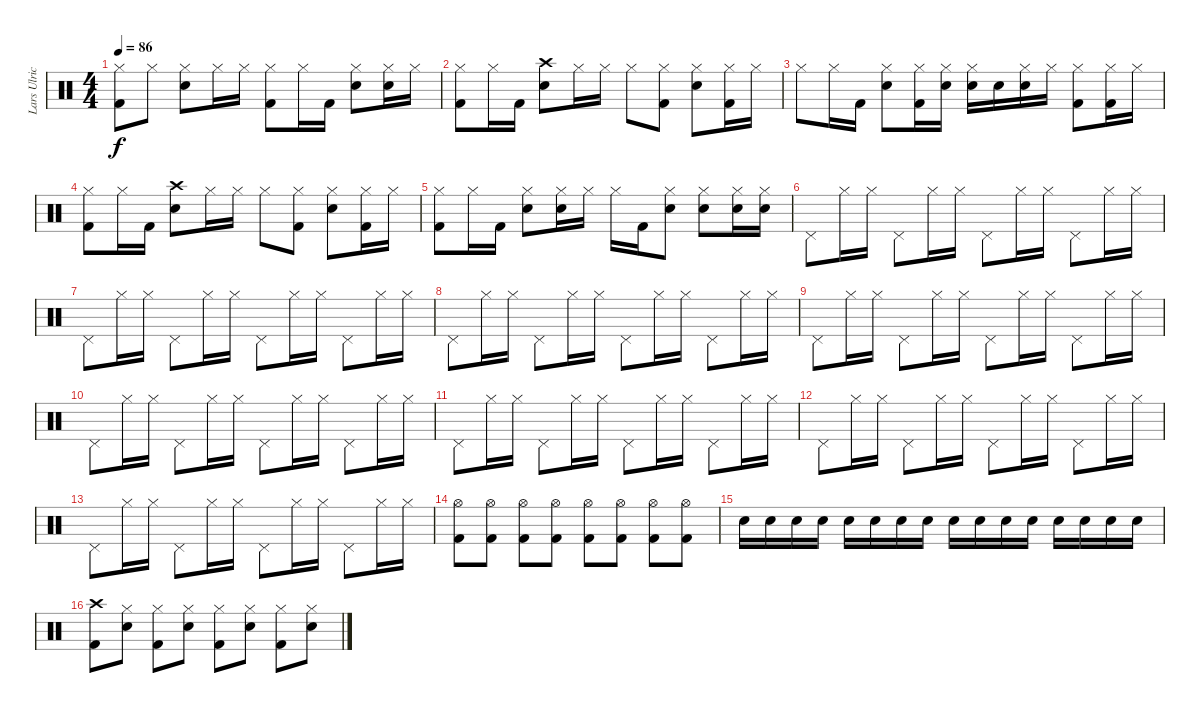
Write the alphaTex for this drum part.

\track ("Lars Ulrich" "Lars Ulric") {instrument percussion}
\staff {score}
\articulation defaults
\ts (4 4)
\tempo 86
\clef neutral
\ks c
("Hi-Hat (closed)" "Kick (hit) 2").8{dy f} "Hi-Hat (closed)".8 ("Hi-Hat (closed)" "Electric Snare (hit)").8 "Hi-Hat (closed)".16 "Hi-Hat (closed)".16 ("Hi-Hat (closed)" "Kick (hit) 2").8 "Hi-Hat (closed)".16 "Kick (hit) 2".16 ("Hi-Hat (closed)" "Electric Snare (hit)").8 ("Hi-Hat (closed)" "Electric Snare (hit)").16 "Hi-Hat (closed)".16 |
("Hi-Hat (closed)" "Kick (hit) 2").8 "Hi-Hat (closed)".16 "Kick (hit) 2".16 ("Crash high (hit)" "Electric Snare (hit)").8 "Hi-Hat (closed)".16 "Hi-Hat (closed)".16 "Hi-Hat (closed)".8 ("Hi-Hat (closed)" "Kick (hit) 2").8 ("Hi-Hat (closed)" "Electric Snare (hit)").8 ("Hi-Hat (closed)" "Kick (hit) 2").16 "Hi-Hat (closed)".16 |
"Hi-Hat (closed)".8 "Hi-Hat (closed)".16 "Kick (hit) 2".16 ("Hi-Hat (closed)" "Electric Snare (hit)").8 ("Hi-Hat (closed)" "Kick (hit) 2").16 ("Hi-Hat (closed)" "Electric Snare (hit)").16 ("Hi-Hat (closed)" "Electric Snare (hit)").16 "Electric Snare (hit)".16 ("Hi-Hat (closed)" "Electric Snare (hit)").16 "Hi-Hat (closed)".16 ("Hi-Hat (closed)" "Kick (hit) 2").8 ("Hi-Hat (closed)" "Kick (hit) 2").16 "Hi-Hat (closed)".16 |
("Hi-Hat (closed)" "Kick (hit) 2").8 "Hi-Hat (closed)".16 "Kick (hit) 2".16 ("Crash high (hit)" "Electric Snare (hit)").8 "Hi-Hat (closed)".16 "Hi-Hat (closed)".16 "Hi-Hat (closed)".8 ("Hi-Hat (closed)" "Kick (hit) 2").8 ("Hi-Hat (closed)" "Electric Snare (hit)").8 ("Hi-Hat (closed)" "Kick (hit) 2").16 "Hi-Hat (closed)".16 |
("Hi-Hat (closed)" "Kick (hit) 2").8 "Hi-Hat (closed)".16 "Kick (hit) 2".16 ("Hi-Hat (closed)" "Electric Snare (hit)").8 ("Hi-Hat (closed)" "Electric Snare (hit)").16 "Hi-Hat (closed)".16 "Hi-Hat (closed)".16 "Kick (hit) 2".16 ("Hi-Hat (closed)" "Electric Snare (hit)").8 ("Hi-Hat (closed)" "Electric Snare (hit)").8 ("Hi-Hat (closed)" "Electric Snare (hit)").16 ("Hi-Hat (closed)" "Electric Snare (hit)").16 |
"Pedal Hi-Hat (hit)".8 "Hi-Hat (closed)".16 "Hi-Hat (closed)".16 "Pedal Hi-Hat (hit)".8 "Hi-Hat (closed)".16 "Hi-Hat (closed)".16 "Pedal Hi-Hat (hit)".8 "Hi-Hat (closed)".16 "Hi-Hat (closed)".16 "Pedal Hi-Hat (hit)".8 "Hi-Hat (closed)".16 "Hi-Hat (closed)".16 |
"Pedal Hi-Hat (hit)".8 "Hi-Hat (closed)".16 "Hi-Hat (closed)".16 "Pedal Hi-Hat (hit)".8 "Hi-Hat (closed)".16 "Hi-Hat (closed)".16 "Pedal Hi-Hat (hit)".8 "Hi-Hat (closed)".16 "Hi-Hat (closed)".16 "Pedal Hi-Hat (hit)".8 "Hi-Hat (closed)".16 "Hi-Hat (closed)".16 |
"Pedal Hi-Hat (hit)".8 "Hi-Hat (closed)".16 "Hi-Hat (closed)".16 "Pedal Hi-Hat (hit)".8 "Hi-Hat (closed)".16 "Hi-Hat (closed)".16 "Pedal Hi-Hat (hit)".8 "Hi-Hat (closed)".16 "Hi-Hat (closed)".16 "Pedal Hi-Hat (hit)".8 "Hi-Hat (closed)".16 "Hi-Hat (closed)".16 |
"Pedal Hi-Hat (hit)".8 "Hi-Hat (closed)".16 "Hi-Hat (closed)".16 "Pedal Hi-Hat (hit)".8 "Hi-Hat (closed)".16 "Hi-Hat (closed)".16 "Pedal Hi-Hat (hit)".8 "Hi-Hat (closed)".16 "Hi-Hat (closed)".16 "Pedal Hi-Hat (hit)".8 "Hi-Hat (closed)".16 "Hi-Hat (closed)".16 |
"Pedal Hi-Hat (hit)".8 "Hi-Hat (closed)".16 "Hi-Hat (closed)".16 "Pedal Hi-Hat (hit)".8 "Hi-Hat (closed)".16 "Hi-Hat (closed)".16 "Pedal Hi-Hat (hit)".8 "Hi-Hat (closed)".16 "Hi-Hat (closed)".16 "Pedal Hi-Hat (hit)".8 "Hi-Hat (closed)".16 "Hi-Hat (closed)".16 |
"Pedal Hi-Hat (hit)".8 "Hi-Hat (closed)".16 "Hi-Hat (closed)".16 "Pedal Hi-Hat (hit)".8 "Hi-Hat (closed)".16 "Hi-Hat (closed)".16 "Pedal Hi-Hat (hit)".8 "Hi-Hat (closed)".16 "Hi-Hat (closed)".16 "Pedal Hi-Hat (hit)".8 "Hi-Hat (closed)".16 "Hi-Hat (closed)".16 |
"Pedal Hi-Hat (hit)".8 "Hi-Hat (closed)".16 "Hi-Hat (closed)".16 "Pedal Hi-Hat (hit)".8 "Hi-Hat (closed)".16 "Hi-Hat (closed)".16 "Pedal Hi-Hat (hit)".8 "Hi-Hat (closed)".16 "Hi-Hat (closed)".16 "Pedal Hi-Hat (hit)".8 "Hi-Hat (closed)".16 "Hi-Hat (closed)".16 |
"Pedal Hi-Hat (hit)".8 "Hi-Hat (closed)".16 "Hi-Hat (closed)".16 "Pedal Hi-Hat (hit)".8 "Hi-Hat (closed)".16 "Hi-Hat (closed)".16 "Pedal Hi-Hat (hit)".8 "Hi-Hat (closed)".16 "Hi-Hat (closed)".16 "Pedal Hi-Hat (hit)".8 "Hi-Hat (closed)".16 "Hi-Hat (closed)".16 |
("Hi-Hat (open)" "Kick (hit) 2").8 ("Hi-Hat (open)" "Kick (hit) 2").8 ("Hi-Hat (open)" "Kick (hit) 2").8 ("Hi-Hat (open)" "Kick (hit) 2").8 ("Hi-Hat (open)" "Kick (hit) 2").8 ("Hi-Hat (open)" "Kick (hit) 2").8 ("Hi-Hat (open)" "Kick (hit) 2").8 ("Hi-Hat (open)" "Kick (hit) 2").8 |
"Electric Snare (hit)".16 "Electric Snare (hit)".16 "Electric Snare (hit)".16 "Electric Snare (hit)".16 "Electric Snare (hit)".16 "Electric Snare (hit)".16 "Electric Snare (hit)".16 "Electric Snare (hit)".16 "Electric Snare (hit)".16 "Electric Snare (hit)".16 "Electric Snare (hit)".16 "Electric Snare (hit)".16 "Electric Snare (hit)".16 "Electric Snare (hit)".16 "Electric Snare (hit)".16 "Electric Snare (hit)".16 |
("Crash high (hit)" "Kick (hit) 2").8 ("Hi-Hat (closed)" "Electric Snare (hit)").8 ("Hi-Hat (closed)" "Kick (hit) 2").8 ("Hi-Hat (closed)" "Electric Snare (hit)").8 ("Hi-Hat (closed)" "Kick (hit) 2").8 ("Hi-Hat (closed)" "Electric Snare (hit)").8 ("Hi-Hat (closed)" "Kick (hit) 2").8 ("Hi-Hat (closed)" "Electric Snare (hit)").8
